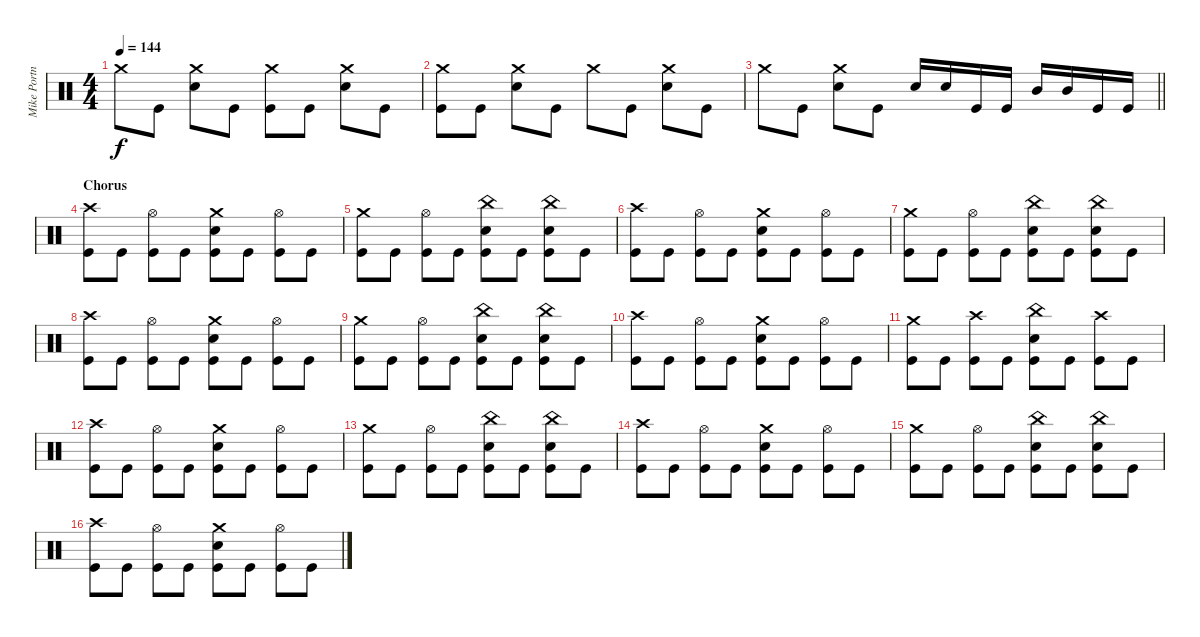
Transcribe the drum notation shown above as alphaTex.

\track ("Mike Portnoy" "Mike Portn") {instrument percussion}
\staff {score}
\articulation defaults
\ts (4 4)
\tempo 144
\clef neutral
\ks c "Crash medium (hit)".8{dy f} "Kick (hit)".8
("Crash medium (hit)" "Electric Snare (hit)").8 "Kick (hit)".8 ("Crash medium (hit)" "Kick (hit)").8 "Kick (hit)".8 ("Crash medium (hit)" "Electric Snare (hit)").8 "Kick (hit)".8 |
("Crash medium (hit)" "Kick (hit)").8 "Kick (hit)".8 ("Crash medium (hit)" "Electric Snare (hit)").8 "Kick (hit)".8 "Crash medium (hit)".8 "Kick (hit)".8 ("Crash medium (hit)" "Electric Snare (hit)").8 "Kick (hit)".8 |
\barLineRight lightlight "Crash medium (hit)".8 "Kick (hit)".8
("Crash medium (hit)" "Electric Snare (hit)").8 "Kick (hit)".8 "Electric Snare (hit)".16 "Electric Snare (hit)".16 "Kick (hit)".16 "Kick (hit)".16 "Mid Tom (hit)".16 "Mid Tom (hit)".16 "Kick (hit)".16 "Kick (hit)".16 |
\section ("" "Chorus")
("Crash high (hit)" "Kick (hit)").8 "Kick (hit)".8 ("Hi-Hat (open)" "Kick (hit)").8 "Kick (hit)".8 ("Crash medium (hit)" "Electric Snare (hit)" "Kick (hit)").8 "Kick (hit)".8 ("Hi-Hat (open)" "Kick (hit)").8 "Kick (hit)".8 |
("Crash medium (hit)" "Kick (hit)").8 "Kick (hit)".8 ("Hi-Hat (open)" "Kick (hit)").8 "Kick (hit)".8 ("China (hit)" "Electric Snare (hit)" "Kick (hit)").8 "Kick (hit)".8 ("China (hit)" "Electric Snare (hit)" "Kick (hit)").8 "Kick (hit)".8 |
("Crash high (hit)" "Kick (hit)").8 "Kick (hit)".8 ("Hi-Hat (open)" "Kick (hit)").8 "Kick (hit)".8 ("Crash medium (hit)" "Electric Snare (hit)" "Kick (hit)").8 "Kick (hit)".8 ("Hi-Hat (open)" "Kick (hit)").8 "Kick (hit)".8 |
("Crash medium (hit)" "Kick (hit)").8 "Kick (hit)".8 ("Hi-Hat (open)" "Kick (hit)").8 "Kick (hit)".8 ("China (hit)" "Electric Snare (hit)" "Kick (hit)").8 "Kick (hit)".8 ("China (hit)" "Electric Snare (hit)" "Kick (hit)").8 "Kick (hit)".8 |
("Crash high (hit)" "Kick (hit)").8 "Kick (hit)".8 ("Hi-Hat (open)" "Kick (hit)").8 "Kick (hit)".8 ("Crash medium (hit)" "Electric Snare (hit)" "Kick (hit)").8 "Kick (hit)".8 ("Hi-Hat (open)" "Kick (hit)").8 "Kick (hit)".8 |
("Crash medium (hit)" "Kick (hit)").8 "Kick (hit)".8 ("Hi-Hat (open)" "Kick (hit)").8 "Kick (hit)".8 ("China (hit)" "Electric Snare (hit)" "Kick (hit)").8 "Kick (hit)".8 ("China (hit)" "Electric Snare (hit)" "Kick (hit)").8 "Kick (hit)".8 |
("Crash high (hit)" "Kick (hit)").8 "Kick (hit)".8 ("Hi-Hat (open)" "Kick (hit)").8 "Kick (hit)".8 ("Crash medium (hit)" "Electric Snare (hit)" "Kick (hit)").8 "Kick (hit)".8 ("Hi-Hat (open)" "Kick (hit)").8 "Kick (hit)".8 |
("Crash medium (hit)" "Kick (hit)").8 "Kick (hit)".8 ("Crash high (hit)" "Kick (hit)").8 "Kick (hit)".8 ("China (hit)" "Electric Snare (hit)" "Kick (hit)").8 "Kick (hit)".8 ("Crash high (hit)" "Kick (hit)").8 "Kick (hit)".8 |
("Crash high (hit)" "Kick (hit)").8 "Kick (hit)".8 ("Hi-Hat (open)" "Kick (hit)").8 "Kick (hit)".8 ("Crash medium (hit)" "Electric Snare (hit)" "Kick (hit)").8 "Kick (hit)".8 ("Hi-Hat (open)" "Kick (hit)").8 "Kick (hit)".8 |
("Crash medium (hit)" "Kick (hit)").8 "Kick (hit)".8 ("Hi-Hat (open)" "Kick (hit)").8 "Kick (hit)".8 ("China (hit)" "Electric Snare (hit)" "Kick (hit)").8 "Kick (hit)".8 ("China (hit)" "Electric Snare (hit)" "Kick (hit)").8 "Kick (hit)".8 |
("Crash high (hit)" "Kick (hit)").8 "Kick (hit)".8 ("Hi-Hat (open)" "Kick (hit)").8 "Kick (hit)".8 ("Crash medium (hit)" "Electric Snare (hit)" "Kick (hit)").8 "Kick (hit)".8 ("Hi-Hat (open)" "Kick (hit)").8 "Kick (hit)".8 |
("Crash medium (hit)" "Kick (hit)").8 "Kick (hit)".8 ("Hi-Hat (open)" "Kick (hit)").8 "Kick (hit)".8 ("China (hit)" "Electric Snare (hit)" "Kick (hit)").8 "Kick (hit)".8 ("China (hit)" "Electric Snare (hit)" "Kick (hit)").8 "Kick (hit)".8 |
("Crash high (hit)" "Kick (hit)").8 "Kick (hit)".8 ("Hi-Hat (open)" "Kick (hit)").8 "Kick (hit)".8 ("Crash medium (hit)" "Electric Snare (hit)" "Kick (hit)").8 "Kick (hit)".8 ("Hi-Hat (open)" "Kick (hit)").8 "Kick (hit)".8
